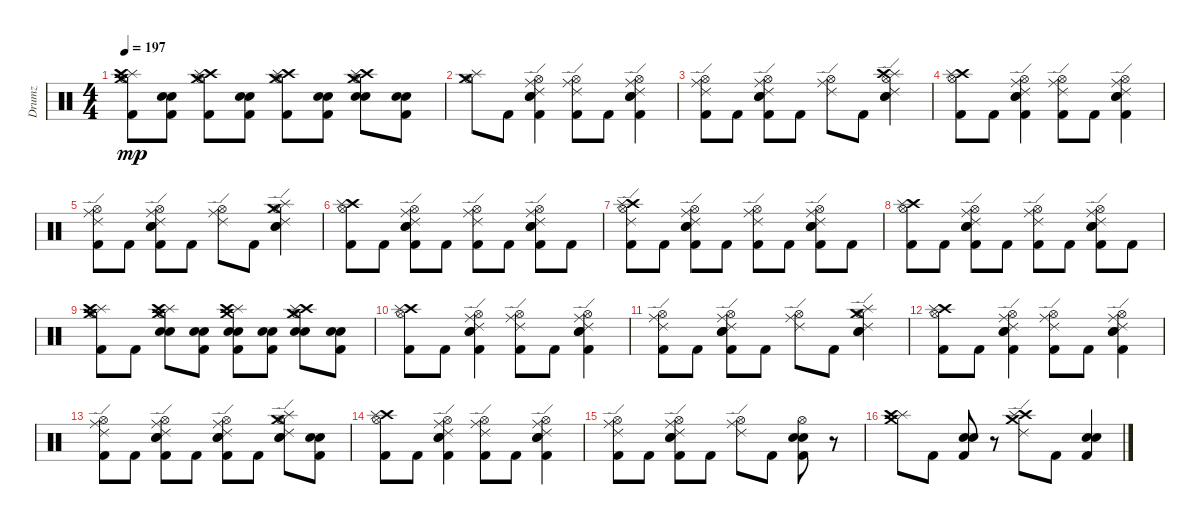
\track ("Drumz" "Drumz") {instrument percussion}
\staff {score}
\articulation defaults
\ts (4 4)
\tempo 197
\clef neutral
\ks c
("Splash (hit)" "Crash medium (hit)" "Crash high (hit)" "Hi-Hat (open)" "Kick (hit) 2").8{dy mp} ("Snare (hit) 2" "Electric Snare (hit)" "Kick (hit) 2").8 ("Crash high (hit)" "Splash (hit)" "Crash medium (hit)" "Hi-Hat (open)" "Kick (hit) 2").8 ("Snare (hit) 2" "Electric Snare (hit)" "Kick (hit) 2").8 ("Crash high (hit)" "Splash (hit)" "Crash medium (hit)" "Kick (hit) 2" "Hi-Hat (open)").8 ("Snare (hit) 2" "Electric Snare (hit)" "Kick (hit) 2").8 ("Crash high (hit)" "Splash (hit)" "Crash medium (hit)" "Hi-Hat (open)" "Snare (hit) 2" "Electric Snare (hit)").8 ("Kick (hit) 2" "Snare (hit) 2" "Electric Snare (hit)").8 |
("Splash (hit)" "Crash medium (hit)" "Hi-Hat (open)").8 "Kick (hit) 2".8 ("Ride (middle)" "Ride (edge) 2" "Kick (hit) 2" "Snare (hit) 2" "Electric Snare (hit)" "Hi-Hat (open)").4 ("Ride (middle)" "Ride (edge) 2" "Kick (hit) 2" "Hi-Hat (open)").8 "Kick (hit) 2".8 ("Ride (middle)" "Ride (edge) 2" "Kick (hit) 2" "Snare (hit) 2" "Electric Snare (hit)" "Hi-Hat (open)").4 |
("Ride (middle)" "Ride (edge) 2" "Hi-Hat (open)" "Kick (hit) 2").8 "Kick (hit) 2".8 ("Ride (middle)" "Ride (edge) 2" "Hi-Hat (open)" "Snare (hit) 2" "Electric Snare (hit)" "Kick (hit) 2").8 "Kick (hit) 2".8 ("Ride (middle)" "Ride (edge) 2" "Hi-Hat (open)").8 "Kick (hit) 2".8 ("Splash (hit)" "Crash high (hit)" "Ride (edge) 2" "Hi-Hat (open)" "Snare (hit) 2" "Electric Snare (hit)").4 |
("Kick (hit) 2" "Crash high (hit)" "Splash (hit)" "Hi-Hat (open)").8 "Kick (hit) 2".8 ("Ride (middle)" "Ride (edge) 2" "Kick (hit) 2" "Snare (hit) 2" "Electric Snare (hit)" "Hi-Hat (open)").4 ("Ride (middle)" "Ride (edge) 2" "Kick (hit) 2" "Hi-Hat (open)").8 "Kick (hit) 2".8 ("Ride (middle)" "Ride (edge) 2" "Kick (hit) 2" "Snare (hit) 2" "Electric Snare (hit)" "Hi-Hat (open)").4 |
("Ride (middle)" "Ride (edge) 2" "Hi-Hat (open)" "Kick (hit) 2").8 "Kick (hit) 2".8 ("Ride (middle)" "Ride (edge) 2" "Hi-Hat (open)" "Snare (hit) 2" "Electric Snare (hit)" "Kick (hit) 2").8 "Kick (hit) 2".8 ("Ride (middle)" "Ride (edge) 2" "Hi-Hat (open)").8 "Kick (hit) 2".8 ("Crash medium (hit)" "Splash (hit)" "Ride (edge) 2" "Hi-Hat (open)" "Snare (hit) 2" "Electric Snare (hit)").4 |
("Kick (hit) 2" "Crash high (hit)" "Splash (hit)" "Hi-Hat (open)").8 "Kick (hit) 2".8 ("Ride (middle)" "Ride (edge) 2" "Kick (hit) 2" "Snare (hit) 2" "Electric Snare (hit)" "Hi-Hat (open)").8 "Kick (hit) 2".8 ("Ride (middle)" "Ride (edge) 2" "Kick (hit) 2" "Hi-Hat (open)").8 "Kick (hit) 2".8 ("Ride (middle)" "Ride (edge) 2" "Kick (hit) 2" "Snare (hit) 2" "Electric Snare (hit)" "Hi-Hat (open)").8 "Kick (hit) 2".8 |
("Crash high (hit)" "Splash (hit)" "Ride (edge) 2" "Hi-Hat (open)" "Kick (hit) 2").8 "Kick (hit) 2".8 ("Ride (middle)" "Ride (edge) 2" "Hi-Hat (open)" "Snare (hit) 2" "Electric Snare (hit)" "Kick (hit) 2").8 "Kick (hit) 2".8 ("Kick (hit) 2" "Ride (middle)" "Ride (edge) 2" "Hi-Hat (open)").8 "Kick (hit) 2".8 ("Ride (middle)" "Ride (edge) 2" "Hi-Hat (open)" "Snare (hit) 2" "Electric Snare (hit)" "Kick (hit) 2").8 "Kick (hit) 2".8 |
("Kick (hit) 2" "Crash high (hit)" "Splash (hit)" "Hi-Hat (open)").8 "Kick (hit) 2".8 ("Ride (middle)" "Ride (edge) 2" "Kick (hit) 2" "Snare (hit) 2" "Electric Snare (hit)" "Hi-Hat (open)").8 "Kick (hit) 2".8 ("Ride (middle)" "Ride (edge) 2" "Kick (hit) 2" "Hi-Hat (open)").8 "Kick (hit) 2".8 ("Ride (middle)" "Ride (edge) 2" "Kick (hit) 2" "Snare (hit) 2" "Electric Snare (hit)" "Hi-Hat (open)").8 "Kick (hit) 2".8 |
("Splash (hit)" "Crash medium (hit)" "Crash high (hit)" "Hi-Hat (open)" "Kick (hit) 2").8 "Kick (hit) 2".8 ("Crash medium (hit)" "Splash (hit)" "Crash high (hit)" "Hi-Hat (open)" "Snare (hit) 2" "Electric Snare (hit)").8 ("Snare (hit) 2" "Electric Snare (hit)" "Kick (hit) 2").8 ("Splash (hit)" "Crash medium (hit)" "Crash high (hit)" "Kick (hit) 2" "Snare (hit) 2" "Electric Snare (hit)").8 ("Snare (hit) 2" "Electric Snare (hit)" "Kick (hit) 2").8 ("Crash high (hit)" "Crash medium (hit)" "Splash (hit)" "Hi-Hat (open)" "Snare (hit) 2" "Electric Snare (hit)").8 ("Kick (hit) 2" "Snare (hit) 2" "Electric Snare (hit)").8 |
("Kick (hit) 2" "Crash high (hit)" "Splash (hit)" "Hi-Hat (open)").8 "Kick (hit) 2".8 ("Ride (middle)" "Ride (edge) 2" "Kick (hit) 2" "Snare (hit) 2" "Electric Snare (hit)" "Hi-Hat (open)").4 ("Ride (middle)" "Ride (edge) 2" "Kick (hit) 2" "Hi-Hat (open)").8 "Kick (hit) 2".8 ("Ride (middle)" "Ride (edge) 2" "Kick (hit) 2" "Snare (hit) 2" "Electric Snare (hit)" "Hi-Hat (open)").4 |
("Ride (middle)" "Ride (edge) 2" "Hi-Hat (open)" "Kick (hit) 2").8 "Kick (hit) 2".8 ("Ride (middle)" "Ride (edge) 2" "Hi-Hat (open)" "Snare (hit) 2" "Electric Snare (hit)" "Kick (hit) 2").8 "Kick (hit) 2".8 ("Ride (middle)" "Ride (edge) 2" "Hi-Hat (open)").8 "Kick (hit) 2".8 ("Crash medium (hit)" "Splash (hit)" "Ride (edge) 2" "Hi-Hat (open)" "Snare (hit) 2" "Electric Snare (hit)").4 |
("Kick (hit) 2" "Crash high (hit)" "Splash (hit)" "Hi-Hat (open)").8 "Kick (hit) 2".8 ("Ride (middle)" "Ride (edge) 2" "Kick (hit) 2" "Snare (hit) 2" "Electric Snare (hit)" "Hi-Hat (open)").4 ("Ride (middle)" "Ride (edge) 2" "Kick (hit) 2" "Hi-Hat (open)").8 "Kick (hit) 2".8 ("Ride (middle)" "Ride (edge) 2" "Kick (hit) 2" "Snare (hit) 2" "Electric Snare (hit)" "Hi-Hat (open)").4 |
("Ride (middle)" "Ride (edge) 2" "Hi-Hat (open)" "Kick (hit) 2").8 "Kick (hit) 2".8 ("Ride (middle)" "Ride (edge) 2" "Hi-Hat (open)" "Snare (hit) 2" "Electric Snare (hit)" "Kick (hit) 2").8 "Kick (hit) 2".8 ("Ride (middle)" "Ride (edge) 2" "Snare (hit) 2" "Electric Snare (hit)" "Kick (hit) 2" "Hi-Hat (open)").8 "Kick (hit) 2".8 ("Crash medium (hit)" "Splash (hit)" "Ride (edge) 2" "Hi-Hat (open)" "Snare (hit) 2" "Electric Snare (hit)").8 ("Kick (hit) 2" "Snare (hit) 2" "Electric Snare (hit)").8 |
("Kick (hit) 2" "Crash high (hit)" "Splash (hit)" "Hi-Hat (open)").8 "Kick (hit) 2".8 ("Ride (middle)" "Ride (edge) 2" "Kick (hit) 2" "Snare (hit) 2" "Electric Snare (hit)" "Hi-Hat (open)").4 ("Ride (middle)" "Ride (edge) 2" "Kick (hit) 2" "Hi-Hat (open)").8 "Kick (hit) 2".8 ("Ride (middle)" "Ride (edge) 2" "Kick (hit) 2" "Snare (hit) 2" "Electric Snare (hit)" "Hi-Hat (open)").4 |
("Ride (middle)" "Ride (edge) 2" "Hi-Hat (open)" "Kick (hit) 2").8 "Kick (hit) 2".8 ("Ride (middle)" "Ride (edge) 2" "Hi-Hat (open)" "Snare (hit) 2" "Electric Snare (hit)" "Kick (hit) 2").8 "Kick (hit) 2".8 ("Ride (middle)" "Ride (edge) 2" "Hi-Hat (open)").8 "Kick (hit) 2".8 ("Hi-Hat (open)" "Snare (hit) 2" "Electric Snare (hit)" "Kick (hit) 2").8 r.8 |
("Splash (hit)" "Crash medium (hit)" "Crash high (hit)").8 "Kick (hit) 2".8 ("Snare (hit) 2" "Electric Snare (hit)" "Kick (hit) 2").8 r.8 ("Crash medium (hit)" "Ride (edge) 2" "Crash high (hit)" "Splash (hit)").8 "Kick (hit) 2".8 ("Kick (hit) 2" "Snare (hit) 2" "Electric Snare (hit)").4
